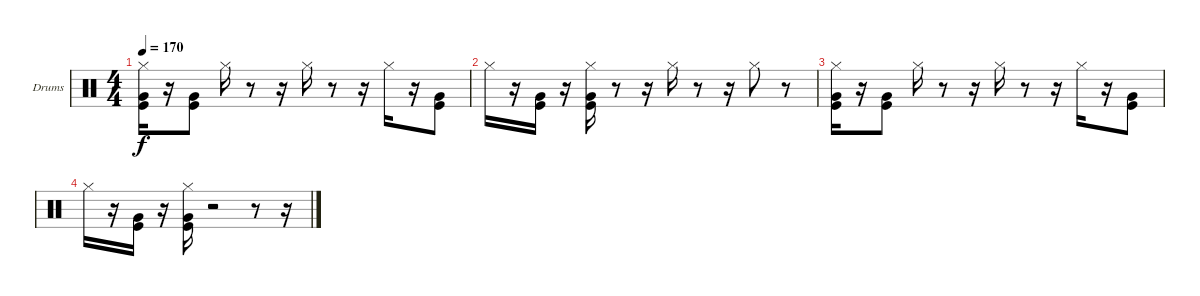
\bracketExtendMode groupsimilarinstruments
\firstSystemTrackNameOrientation horizontal
\otherSystemsTrackNameOrientation horizontal
\track ("Drumkit" "Drums") {instrument percussion}
\staff {score}
\articulation defaults
\ts (4 4)
\tempo 170
\clef neutral
\ks c
("Kick (hit)" "Very Low Tom (hit)" "Hi-Hat (closed)").16{dy f} r.16 ("Kick (hit)" "Very Low Tom (hit)").8 "Hi-Hat (closed)".16 r.8 r.16 "Hi-Hat (closed)".16 r.8 r.16 "Hi-Hat (closed)".16 r.16 ("Kick (hit)" "Very Low Tom (hit)").8 |
"Hi-Hat (closed)".16 r.16 ("Kick (hit)" "Very Low Tom (hit)").16 r.16 ("Kick (hit)" "Very Low Tom (hit)" "Hi-Hat (closed)").16 r.8 r.16 "Hi-Hat (closed)".16 r.8 r.16 "Hi-Hat (closed)".8 r.8 |
("Kick (hit)" "Very Low Tom (hit)" "Hi-Hat (closed)").16 r.16 ("Kick (hit)" "Very Low Tom (hit)").8 "Hi-Hat (closed)".16 r.8 r.16 "Hi-Hat (closed)".16 r.8 r.16 "Hi-Hat (closed)".16 r.16 ("Kick (hit)" "Very Low Tom (hit)").8 |
"Hi-Hat (closed)".16 r.16 ("Kick (hit)" "Very Low Tom (hit)").16 r.16 ("Kick (hit)" "Very Low Tom (hit)" "Hi-Hat (closed)").16 r.2 r.8 r.16
